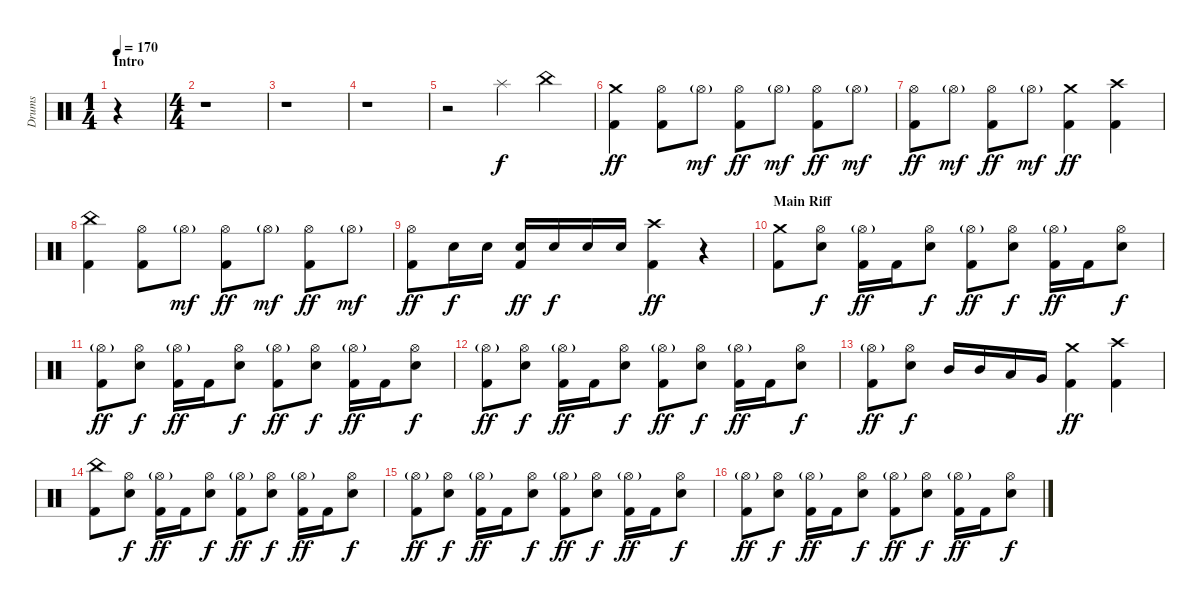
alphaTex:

\track ("Drums" "Drums") {instrument percussion}
\staff {score}
\articulation defaults
\ts (1 4)
\section ("" "Intro")
\tempo 170
\clef neutral
\ks c
r.4{dy f} |
\ts (4 4)
r.1 |
r.1 |
r.1 |
r.2 "Splash (hit)".4 "China (hit)".4 |
("Crash medium (hit)" "Kick (hit) 2").4{dy ff} ("Hi-Hat (open)" "Kick (hit) 2").8 "Hi-Hat (open)"{g}.8{dy mf} ("Hi-Hat (open)" "Kick (hit) 2").8{dy ff} "Hi-Hat (open)"{g}.8{dy mf} ("Hi-Hat (open)" "Kick (hit) 2").8{dy ff} "Hi-Hat (open)"{g}.8{dy mf} |
("Hi-Hat (open)" "Kick (hit) 2").8{dy ff} "Hi-Hat (open)"{g}.8{dy mf} ("Hi-Hat (open)" "Kick (hit) 2").8{dy ff} "Hi-Hat (open)"{g}.8{dy mf} ("Crash medium (hit)" "Kick (hit) 2").4{dy ff} ("Crash high (hit)" "Kick (hit) 2").4 |
("China (hit)" "Kick (hit) 2").4 ("Hi-Hat (open)" "Kick (hit) 2").8 "Hi-Hat (open)"{g}.8{dy mf} ("Hi-Hat (open)" "Kick (hit) 2").8{dy ff} "Hi-Hat (open)"{g}.8{dy mf} ("Hi-Hat (open)" "Kick (hit) 2").8{dy ff} "Hi-Hat (open)"{g}.8{dy mf} |
("Hi-Hat (open)" "Kick (hit) 2").8{dy ff} "Electric Snare (hit)".16{dy f} "Electric Snare (hit)".16 ("Electric Snare (hit)" "Kick (hit) 2").16{dy ff} "Electric Snare (hit)".16{dy f} "Electric Snare (hit)".16 "Electric Snare (hit)".16 ("Crash high (hit)" "Kick (hit) 2").4{dy ff} r.4{volume 5} |
\section ("" "Main Riff")
("Crash medium (hit)" "Kick (hit) 2").8{volume 13} ("Hi-Hat (open)" "Electric Snare (hit)").8{dy f} ("Hi-Hat (open)"{g} "Kick (hit) 2").16{dy ff} "Kick (hit) 2".16 ("Hi-Hat (open)" "Electric Snare (hit)").8{dy f} ("Hi-Hat (open)"{g} "Kick (hit) 2").8{dy ff} ("Hi-Hat (open)" "Electric Snare (hit)").8{dy f} ("Hi-Hat (open)"{g} "Kick (hit) 2").16{dy ff} "Kick (hit) 2".16 ("Hi-Hat (open)" "Electric Snare (hit)").8{dy f} |
("Hi-Hat (open)"{g} "Kick (hit) 2").8{dy ff} ("Hi-Hat (open)" "Electric Snare (hit)").8{dy f} ("Hi-Hat (open)"{g} "Kick (hit) 2").16{dy ff} "Kick (hit) 2".16 ("Hi-Hat (open)" "Electric Snare (hit)").8{dy f} ("Hi-Hat (open)"{g} "Kick (hit) 2").8{dy ff} ("Hi-Hat (open)" "Electric Snare (hit)").8{dy f} ("Hi-Hat (open)"{g} "Kick (hit) 2").16{dy ff} "Kick (hit) 2".16 ("Hi-Hat (open)" "Electric Snare (hit)").8{dy f} |
("Hi-Hat (open)"{g} "Kick (hit) 2").8{dy ff} ("Hi-Hat (open)" "Electric Snare (hit)").8{dy f} ("Hi-Hat (open)"{g} "Kick (hit) 2").16{dy ff} "Kick (hit) 2".16 ("Hi-Hat (open)" "Electric Snare (hit)").8{dy f} ("Hi-Hat (open)"{g} "Kick (hit) 2").8{dy ff} ("Hi-Hat (open)" "Electric Snare (hit)").8{dy f} ("Hi-Hat (open)"{g} "Kick (hit) 2").16{dy ff} "Kick (hit) 2".16 ("Hi-Hat (open)" "Electric Snare (hit)").8{dy f} |
("Hi-Hat (open)"{g} "Kick (hit) 2").8{dy ff} ("Hi-Hat (open)" "Electric Snare (hit)").8{dy f} "Mid Tom (hit)".16 "Mid Tom (hit)".16 "Low Tom (hit)".16 "Very Low Tom (hit)".16 ("Crash medium (hit)" "Kick (hit) 2").4{dy ff} ("Crash high (hit)" "Kick (hit) 2").4 |
("China (hit)" "Kick (hit) 2").8 ("Hi-Hat (open)" "Electric Snare (hit)").8{dy f} ("Hi-Hat (open)"{g} "Kick (hit) 2").16{dy ff} "Kick (hit) 2".16 ("Hi-Hat (open)" "Electric Snare (hit)").8{dy f} ("Hi-Hat (open)"{g} "Kick (hit) 2").8{dy ff} ("Hi-Hat (open)" "Electric Snare (hit)").8{dy f} ("Hi-Hat (open)"{g} "Kick (hit) 2").16{dy ff} "Kick (hit) 2".16 ("Hi-Hat (open)" "Electric Snare (hit)").8{dy f} |
("Hi-Hat (open)"{g} "Kick (hit) 2").8{dy ff} ("Hi-Hat (open)" "Electric Snare (hit)").8{dy f} ("Hi-Hat (open)"{g} "Kick (hit) 2").16{dy ff} "Kick (hit) 2".16 ("Hi-Hat (open)" "Electric Snare (hit)").8{dy f} ("Hi-Hat (open)"{g} "Kick (hit) 2").8{dy ff} ("Hi-Hat (open)" "Electric Snare (hit)").8{dy f} ("Hi-Hat (open)"{g} "Kick (hit) 2").16{dy ff} "Kick (hit) 2".16 ("Hi-Hat (open)" "Electric Snare (hit)").8{dy f} |
("Hi-Hat (open)"{g} "Kick (hit) 2").8{dy ff} ("Hi-Hat (open)" "Electric Snare (hit)").8{dy f} ("Hi-Hat (open)"{g} "Kick (hit) 2").16{dy ff} "Kick (hit) 2".16 ("Hi-Hat (open)" "Electric Snare (hit)").8{dy f} ("Hi-Hat (open)"{g} "Kick (hit) 2").8{dy ff} ("Hi-Hat (open)" "Electric Snare (hit)").8{dy f} ("Hi-Hat (open)"{g} "Kick (hit) 2").16{dy ff} "Kick (hit) 2".16 ("Hi-Hat (open)" "Electric Snare (hit)").8{dy f}
